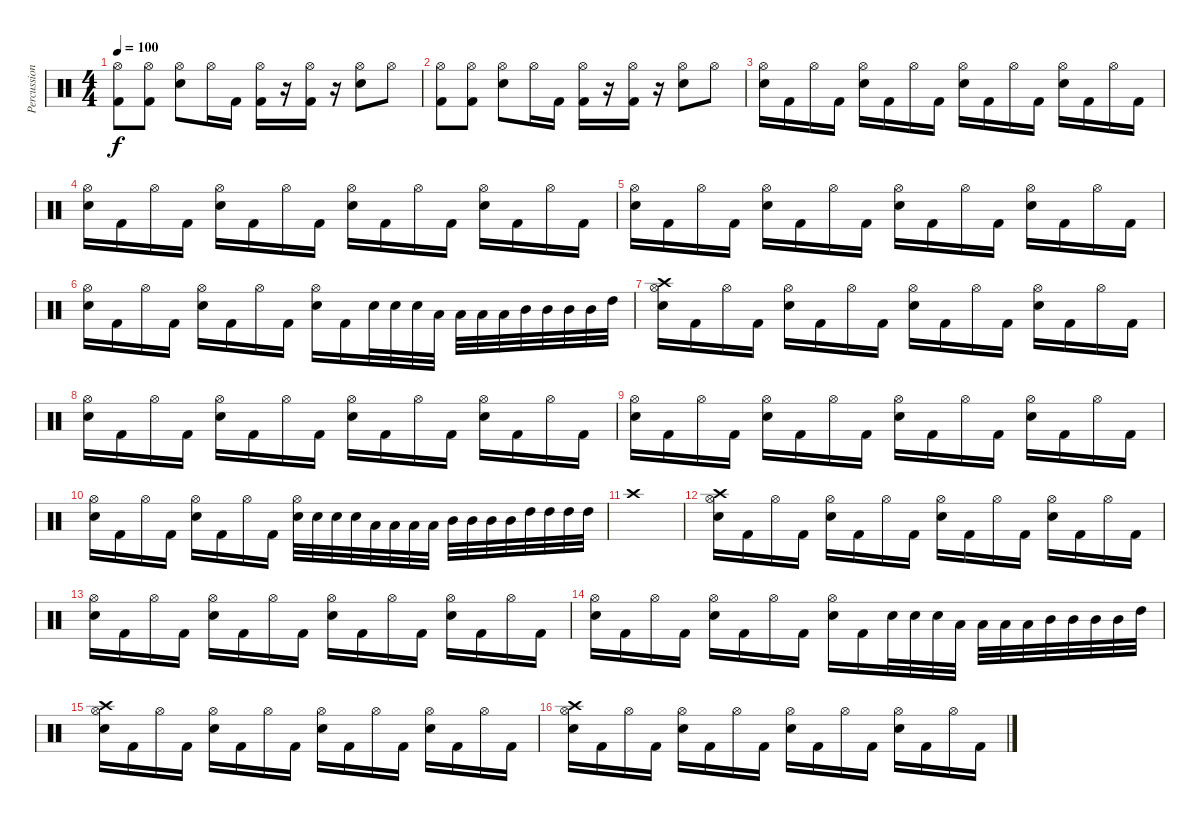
\track ("Percussion" "Percussion") {instrument percussion}
\staff {score}
\articulation defaults
\ts (4 4)
\tempo 100
\clef neutral
\ks c
("Hi-Hat (open)" "Kick (hit) 2").8{dy f} ("Hi-Hat (open)" "Kick (hit) 2").8 ("Hi-Hat (open)" "Snare (hit) 2").8 "Hi-Hat (open)".16 "Kick (hit) 2".16 ("Hi-Hat (open)" "Kick (hit) 2").16 r.16 ("Hi-Hat (open)" "Kick (hit) 2").16 r.16 ("Hi-Hat (open)" "Snare (hit) 2").8 "Hi-Hat (open)".8 |
("Hi-Hat (open)" "Kick (hit) 2").8 ("Hi-Hat (open)" "Kick (hit) 2").8 ("Hi-Hat (open)" "Snare (hit) 2").8 "Hi-Hat (open)".16 "Kick (hit) 2".16 ("Hi-Hat (open)" "Kick (hit) 2").16 r.16 ("Hi-Hat (open)" "Kick (hit) 2").16 r.16 ("Hi-Hat (open)" "Snare (hit) 2").8 "Hi-Hat (open)".8 |
("Hi-Hat (open)" "Snare (hit) 2").16 "Kick (hit) 2".16 "Hi-Hat (open)".16 "Kick (hit) 2".16 ("Hi-Hat (open)" "Snare (hit) 2").16 "Kick (hit) 2".16 "Hi-Hat (open)".16 "Kick (hit) 2".16 ("Hi-Hat (open)" "Snare (hit) 2").16 "Kick (hit) 2".16 "Hi-Hat (open)".16 "Kick (hit) 2".16 ("Hi-Hat (open)" "Snare (hit) 2").16 "Kick (hit) 2".16 "Hi-Hat (open)".16 "Kick (hit) 2".16 |
("Hi-Hat (open)" "Snare (hit) 2").16 "Kick (hit) 2".16 "Hi-Hat (open)".16 "Kick (hit) 2".16 ("Hi-Hat (open)" "Snare (hit) 2").16 "Kick (hit) 2".16 "Hi-Hat (open)".16 "Kick (hit) 2".16 ("Hi-Hat (open)" "Snare (hit) 2").16 "Kick (hit) 2".16 "Hi-Hat (open)".16 "Kick (hit) 2".16 ("Hi-Hat (open)" "Snare (hit) 2").16 "Kick (hit) 2".16 "Hi-Hat (open)".16 "Kick (hit) 2".16 |
("Hi-Hat (open)" "Snare (hit) 2").16 "Kick (hit) 2".16 "Hi-Hat (open)".16 "Kick (hit) 2".16 ("Hi-Hat (open)" "Snare (hit) 2").16 "Kick (hit) 2".16 "Hi-Hat (open)".16 "Kick (hit) 2".16 ("Hi-Hat (open)" "Snare (hit) 2").16 "Kick (hit) 2".16 "Hi-Hat (open)".16 "Kick (hit) 2".16 ("Hi-Hat (open)" "Snare (hit) 2").16 "Kick (hit) 2".16 "Hi-Hat (open)".16 "Kick (hit) 2".16 |
("Hi-Hat (open)" "Snare (hit) 2").16 "Kick (hit) 2".16 "Hi-Hat (open)".16 "Kick (hit) 2".16 ("Hi-Hat (open)" "Snare (hit) 2").16 "Kick (hit) 2".16 "Hi-Hat (open)".16 "Kick (hit) 2".16 ("Hi-Hat (open)" "Snare (hit) 2").16 "Kick (hit) 2".16 "Snare (hit) 2".32 "Snare (hit) 2".32 "Snare (hit) 2".32 "Low Tom (hit)".32 "Low Tom (hit)".32 "Low Tom (hit)".32 "Low Tom (hit)".32 "Mid Tom (hit)".32 "Mid Tom (hit)".32 "Mid Tom (hit)".32 "Mid Tom (hit)".32 "High Tom (hit)".32 |
("Hi-Hat (open)" "Crash high (hit)" "Snare (hit) 2").16 "Kick (hit) 2".16 "Hi-Hat (open)".16 "Kick (hit) 2".16 ("Hi-Hat (open)" "Snare (hit) 2").16 "Kick (hit) 2".16 "Hi-Hat (open)".16 "Kick (hit) 2".16 ("Hi-Hat (open)" "Snare (hit) 2").16 "Kick (hit) 2".16 "Hi-Hat (open)".16 "Kick (hit) 2".16 ("Hi-Hat (open)" "Snare (hit) 2").16 "Kick (hit) 2".16 "Hi-Hat (open)".16 "Kick (hit) 2".16 |
("Hi-Hat (open)" "Snare (hit) 2").16 "Kick (hit) 2".16 "Hi-Hat (open)".16 "Kick (hit) 2".16 ("Hi-Hat (open)" "Snare (hit) 2").16 "Kick (hit) 2".16 "Hi-Hat (open)".16 "Kick (hit) 2".16 ("Hi-Hat (open)" "Snare (hit) 2").16 "Kick (hit) 2".16 "Hi-Hat (open)".16 "Kick (hit) 2".16 ("Hi-Hat (open)" "Snare (hit) 2").16 "Kick (hit) 2".16 "Hi-Hat (open)".16 "Kick (hit) 2".16 |
("Hi-Hat (open)" "Snare (hit) 2").16 "Kick (hit) 2".16 "Hi-Hat (open)".16 "Kick (hit) 2".16 ("Hi-Hat (open)" "Snare (hit) 2").16 "Kick (hit) 2".16 "Hi-Hat (open)".16 "Kick (hit) 2".16 ("Hi-Hat (open)" "Snare (hit) 2").16 "Kick (hit) 2".16 "Hi-Hat (open)".16 "Kick (hit) 2".16 ("Hi-Hat (open)" "Snare (hit) 2").16 "Kick (hit) 2".16 "Hi-Hat (open)".16 "Kick (hit) 2".16 |
("Hi-Hat (open)" "Snare (hit) 2").16 "Kick (hit) 2".16 "Hi-Hat (open)".16 "Kick (hit) 2".16 ("Hi-Hat (open)" "Snare (hit) 2").16 "Kick (hit) 2".16 "Hi-Hat (open)".16 "Kick (hit) 2".16 ("Hi-Hat (open)" "Snare (hit) 2").32 "Snare (hit) 2".32 "Snare (hit) 2".32 "Snare (hit) 2".32 "Low Tom (hit)".32 "Low Tom (hit)".32 "Low Tom (hit)".32 "Low Tom (hit)".32 "Mid Tom (hit)".32 "Mid Tom (hit)".32 "Mid Tom (hit)".32 "Mid Tom (hit)".32 "High Tom (hit)".32 "High Tom (hit)".32 "High Tom (hit)".32 "High Tom (hit)".32 |
"Crash high (hit)".1 |
("Hi-Hat (open)" "Crash high (hit)" "Snare (hit) 2").16 "Kick (hit) 2".16 "Hi-Hat (open)".16 "Kick (hit) 2".16 ("Hi-Hat (open)" "Snare (hit) 2").16 "Kick (hit) 2".16 "Hi-Hat (open)".16 "Kick (hit) 2".16 ("Hi-Hat (open)" "Snare (hit) 2").16 "Kick (hit) 2".16 "Hi-Hat (open)".16 "Kick (hit) 2".16 ("Hi-Hat (open)" "Snare (hit) 2").16 "Kick (hit) 2".16 "Hi-Hat (open)".16 "Kick (hit) 2".16 |
("Hi-Hat (open)" "Snare (hit) 2").16 "Kick (hit) 2".16 "Hi-Hat (open)".16 "Kick (hit) 2".16 ("Hi-Hat (open)" "Snare (hit) 2").16 "Kick (hit) 2".16 "Hi-Hat (open)".16 "Kick (hit) 2".16 ("Hi-Hat (open)" "Snare (hit) 2").16 "Kick (hit) 2".16 "Hi-Hat (open)".16 "Kick (hit) 2".16 ("Hi-Hat (open)" "Snare (hit) 2").16 "Kick (hit) 2".16 "Hi-Hat (open)".16 "Kick (hit) 2".16 |
("Hi-Hat (open)" "Snare (hit) 2").16 "Kick (hit) 2".16 "Hi-Hat (open)".16 "Kick (hit) 2".16 ("Hi-Hat (open)" "Snare (hit) 2").16 "Kick (hit) 2".16 "Hi-Hat (open)".16 "Kick (hit) 2".16 ("Hi-Hat (open)" "Snare (hit) 2").16 "Kick (hit) 2".16 "Snare (hit) 2".32 "Snare (hit) 2".32 "Snare (hit) 2".32 "Low Tom (hit)".32 "Low Tom (hit)".32 "Low Tom (hit)".32 "Low Tom (hit)".32 "Mid Tom (hit)".32 "Mid Tom (hit)".32 "Mid Tom (hit)".32 "Mid Tom (hit)".32 "High Tom (hit)".32 |
("Hi-Hat (open)" "Crash high (hit)" "Snare (hit) 2").16 "Kick (hit) 2".16 "Hi-Hat (open)".16 "Kick (hit) 2".16 ("Hi-Hat (open)" "Snare (hit) 2").16 "Kick (hit) 2".16 "Hi-Hat (open)".16 "Kick (hit) 2".16 ("Hi-Hat (open)" "Snare (hit) 2").16 "Kick (hit) 2".16 "Hi-Hat (open)".16 "Kick (hit) 2".16 ("Hi-Hat (open)" "Snare (hit) 2").16 "Kick (hit) 2".16 "Hi-Hat (open)".16 "Kick (hit) 2".16 |
("Hi-Hat (open)" "Crash high (hit)" "Snare (hit) 2").16 "Kick (hit) 2".16 "Hi-Hat (open)".16 "Kick (hit) 2".16 ("Hi-Hat (open)" "Snare (hit) 2").16 "Kick (hit) 2".16 "Hi-Hat (open)".16 "Kick (hit) 2".16 ("Hi-Hat (open)" "Snare (hit) 2").16 "Kick (hit) 2".16 "Hi-Hat (open)".16 "Kick (hit) 2".16 ("Hi-Hat (open)" "Snare (hit) 2").16 "Kick (hit) 2".16 "Hi-Hat (open)".16 "Kick (hit) 2".16
